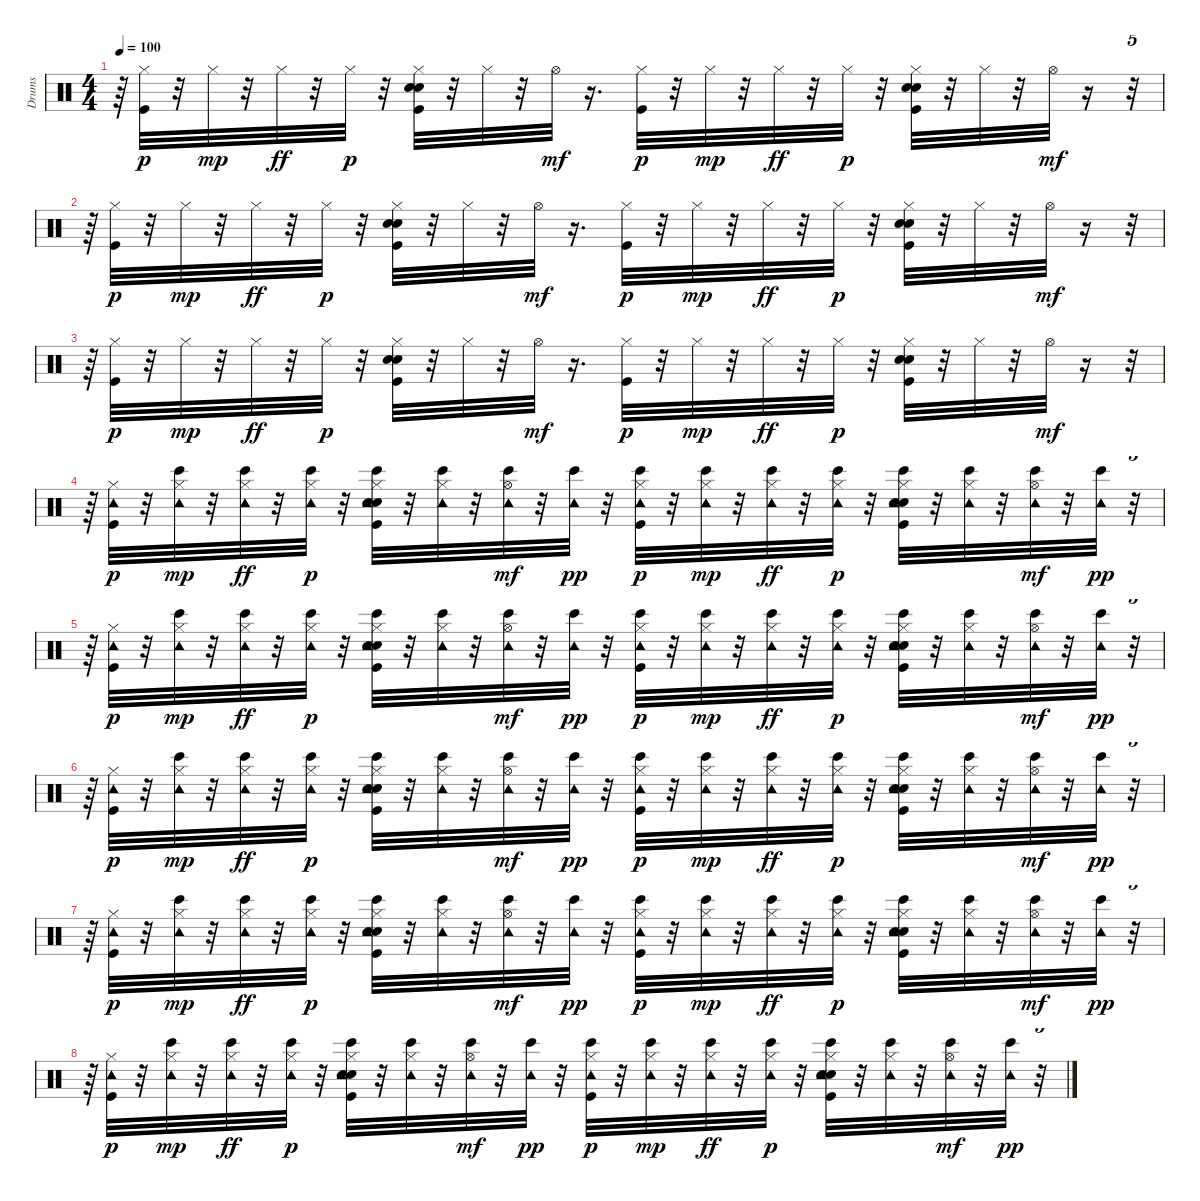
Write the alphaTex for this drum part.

\track ("Drums" "Drums") {instrument percussion}
\staff {score}
\articulation defaults
\ts (4 4)
\tempo 100
\clef neutral
\ks c
r.64{dy mf} ("Kick (hit)" "Hi-Hat (closed)").32{dy p} r.32 "Hi-Hat (closed)".32{dy mp} r.32 "Hi-Hat (closed)".32{dy ff} r.32 "Hi-Hat (closed)".32{dy p} r.32 ("Hand Clap (hit)" "Snare (hit) 2" "Kick (hit)" "Hi-Hat (closed)").32 r.32 "Hi-Hat (closed)".32 r.32 "Hi-Hat (open)".32{dy mf} r.16{d} ("Kick (hit)" "Hi-Hat (closed)").32{dy p} r.32 "Hi-Hat (closed)".32{dy mp} r.32 "Hi-Hat (closed)".32{dy ff} r.32 "Hi-Hat (closed)".32{dy p} r.32 ("Hand Clap (hit)" "Snare (hit) 2" "Kick (hit)" "Hi-Hat (closed)").32 r.32 "Hi-Hat (closed)".32 r.32 "Hi-Hat (open)".32{dy mf} r.16 r.32{tu (5 4)} |
r.64 ("Kick (hit)" "Hi-Hat (closed)").32{dy p} r.32 "Hi-Hat (closed)".32{dy mp} r.32 "Hi-Hat (closed)".32{dy ff} r.32 "Hi-Hat (closed)".32{dy p} r.32 ("Hand Clap (hit)" "Snare (hit) 2" "Kick (hit)" "Hi-Hat (closed)").32 r.32 "Hi-Hat (closed)".32 r.32 "Hi-Hat (open)".32{dy mf} r.16{d} ("Kick (hit)" "Hi-Hat (closed)").32{dy p} r.32 "Hi-Hat (closed)".32{dy mp} r.32 "Hi-Hat (closed)".32{dy ff} r.32 "Hi-Hat (closed)".32{dy p} r.32 ("Hand Clap (hit)" "Snare (hit) 2" "Kick (hit)" "Hi-Hat (closed)").32 r.32 "Hi-Hat (closed)".32 r.32 "Hi-Hat (open)".32{dy mf} r.16 r.32{tu (5 4)} |
r.64 ("Kick (hit)" "Hi-Hat (closed)").32{dy p} r.32 "Hi-Hat (closed)".32{dy mp} r.32 "Hi-Hat (closed)".32{dy ff} r.32 "Hi-Hat (closed)".32{dy p} r.32 ("Hand Clap (hit)" "Snare (hit) 2" "Kick (hit)" "Hi-Hat (closed)").32 r.32 "Hi-Hat (closed)".32 r.32 "Hi-Hat (open)".32{dy mf} r.16{d} ("Kick (hit)" "Hi-Hat (closed)").32{dy p} r.32 "Hi-Hat (closed)".32{dy mp} r.32 "Hi-Hat (closed)".32{dy ff} r.32 "Hi-Hat (closed)".32{dy p} r.32 ("Hand Clap (hit)" "Snare (hit) 2" "Kick (hit)" "Hi-Hat (closed)").32 r.32 "Hi-Hat (closed)".32 r.32 "Hi-Hat (open)".32{dy mf} r.16 r.32{tu (5 4)} |
r.64 ("Tambourine (hit)" "Kick (hit)" "Hi-Hat (closed)").32{dy p} r.32 ("Bongo High (hit)" "Tambourine (hit)" "Hi-Hat (closed)").32{dy mp} r.32 ("Bongo High (hit)" "Tambourine (hit)" "Hi-Hat (closed)").32{dy ff} r.32 ("Bongo High (hit)" "Tambourine (hit)" "Hi-Hat (closed)").32{dy p} r.32 ("Hand Clap (hit)" "Snare (hit) 2" "Bongo High (hit)" "Tambourine (hit)" "Kick (hit)" "Hi-Hat (closed)").32 r.32 ("Bongo High (hit)" "Tambourine (hit)" "Hi-Hat (closed)").32 r.32 ("Bongo High (hit)" "Tambourine (hit)" "Hi-Hat (open)").32{dy mf} r.32 ("Bongo High (hit)" "Tambourine (hit)").32{dy pp} r.32 ("Bongo High (hit)" "Tambourine (hit)" "Kick (hit)" "Hi-Hat (closed)").32{dy p} r.32 ("Bongo High (hit)" "Tambourine (hit)" "Hi-Hat (closed)").32{dy mp} r.32 ("Bongo High (hit)" "Tambourine (hit)" "Hi-Hat (closed)").32{dy ff} r.32 ("Bongo High (hit)" "Tambourine (hit)" "Hi-Hat (closed)").32{dy p} r.32 ("Hand Clap (hit)" "Snare (hit) 2" "Bongo High (hit)" "Tambourine (hit)" "Kick (hit)" "Hi-Hat (closed)").32 r.32 ("Bongo High (hit)" "Tambourine (hit)" "Hi-Hat (closed)").32 r.32 ("Bongo High (hit)" "Tambourine (hit)" "Hi-Hat (open)").32{dy mf} r.32 ("Bongo High (hit)" "Tambourine (hit)").32{dy pp} r.32{tu (5 4)} |
r.64 ("Tambourine (hit)" "Kick (hit)" "Hi-Hat (closed)").32{dy p} r.32 ("Bongo High (hit)" "Tambourine (hit)" "Hi-Hat (closed)").32{dy mp} r.32 ("Bongo High (hit)" "Tambourine (hit)" "Hi-Hat (closed)").32{dy ff} r.32 ("Bongo High (hit)" "Tambourine (hit)" "Hi-Hat (closed)").32{dy p} r.32 ("Hand Clap (hit)" "Snare (hit) 2" "Bongo High (hit)" "Tambourine (hit)" "Kick (hit)" "Hi-Hat (closed)").32 r.32 ("Bongo High (hit)" "Tambourine (hit)" "Hi-Hat (closed)").32 r.32 ("Bongo High (hit)" "Tambourine (hit)" "Hi-Hat (open)").32{dy mf} r.32 ("Bongo High (hit)" "Tambourine (hit)").32{dy pp} r.32 ("Bongo High (hit)" "Tambourine (hit)" "Kick (hit)" "Hi-Hat (closed)").32{dy p} r.32 ("Bongo High (hit)" "Tambourine (hit)" "Hi-Hat (closed)").32{dy mp} r.32 ("Bongo High (hit)" "Tambourine (hit)" "Hi-Hat (closed)").32{dy ff} r.32 ("Bongo High (hit)" "Tambourine (hit)" "Hi-Hat (closed)").32{dy p} r.32 ("Hand Clap (hit)" "Snare (hit) 2" "Bongo High (hit)" "Tambourine (hit)" "Kick (hit)" "Hi-Hat (closed)").32 r.32 ("Bongo High (hit)" "Tambourine (hit)" "Hi-Hat (closed)").32 r.32 ("Bongo High (hit)" "Tambourine (hit)" "Hi-Hat (open)").32{dy mf} r.32 ("Bongo High (hit)" "Tambourine (hit)").32{dy pp} r.32{tu (5 4)} |
r.64 ("Tambourine (hit)" "Kick (hit)" "Hi-Hat (closed)").32{dy p} r.32 ("Bongo High (hit)" "Tambourine (hit)" "Hi-Hat (closed)").32{dy mp} r.32 ("Bongo High (hit)" "Tambourine (hit)" "Hi-Hat (closed)").32{dy ff} r.32 ("Bongo High (hit)" "Tambourine (hit)" "Hi-Hat (closed)").32{dy p} r.32 ("Hand Clap (hit)" "Snare (hit) 2" "Bongo High (hit)" "Tambourine (hit)" "Kick (hit)" "Hi-Hat (closed)").32 r.32 ("Bongo High (hit)" "Tambourine (hit)" "Hi-Hat (closed)").32 r.32 ("Bongo High (hit)" "Tambourine (hit)" "Hi-Hat (open)").32{dy mf} r.32 ("Bongo High (hit)" "Tambourine (hit)").32{dy pp} r.32 ("Bongo High (hit)" "Tambourine (hit)" "Kick (hit)" "Hi-Hat (closed)").32{dy p} r.32 ("Bongo High (hit)" "Tambourine (hit)" "Hi-Hat (closed)").32{dy mp} r.32 ("Bongo High (hit)" "Tambourine (hit)" "Hi-Hat (closed)").32{dy ff} r.32 ("Bongo High (hit)" "Tambourine (hit)" "Hi-Hat (closed)").32{dy p} r.32 ("Hand Clap (hit)" "Snare (hit) 2" "Bongo High (hit)" "Tambourine (hit)" "Kick (hit)" "Hi-Hat (closed)").32 r.32 ("Bongo High (hit)" "Tambourine (hit)" "Hi-Hat (closed)").32 r.32 ("Bongo High (hit)" "Tambourine (hit)" "Hi-Hat (open)").32{dy mf} r.32 ("Bongo High (hit)" "Tambourine (hit)").32{dy pp} r.32{tu (5 4)} |
r.64 ("Tambourine (hit)" "Kick (hit)" "Hi-Hat (closed)").32{dy p} r.32 ("Bongo High (hit)" "Tambourine (hit)" "Hi-Hat (closed)").32{dy mp} r.32 ("Bongo High (hit)" "Tambourine (hit)" "Hi-Hat (closed)").32{dy ff} r.32 ("Bongo High (hit)" "Tambourine (hit)" "Hi-Hat (closed)").32{dy p} r.32 ("Hand Clap (hit)" "Snare (hit) 2" "Bongo High (hit)" "Tambourine (hit)" "Kick (hit)" "Hi-Hat (closed)").32 r.32 ("Bongo High (hit)" "Tambourine (hit)" "Hi-Hat (closed)").32 r.32 ("Bongo High (hit)" "Tambourine (hit)" "Hi-Hat (open)").32{dy mf} r.32 ("Bongo High (hit)" "Tambourine (hit)").32{dy pp} r.32 ("Bongo High (hit)" "Tambourine (hit)" "Kick (hit)" "Hi-Hat (closed)").32{dy p} r.32 ("Bongo High (hit)" "Tambourine (hit)" "Hi-Hat (closed)").32{dy mp} r.32 ("Bongo High (hit)" "Tambourine (hit)" "Hi-Hat (closed)").32{dy ff} r.32 ("Bongo High (hit)" "Tambourine (hit)" "Hi-Hat (closed)").32{dy p} r.32 ("Hand Clap (hit)" "Snare (hit) 2" "Bongo High (hit)" "Tambourine (hit)" "Kick (hit)" "Hi-Hat (closed)").32 r.32 ("Bongo High (hit)" "Tambourine (hit)" "Hi-Hat (closed)").32 r.32 ("Bongo High (hit)" "Tambourine (hit)" "Hi-Hat (open)").32{dy mf} r.32 ("Bongo High (hit)" "Tambourine (hit)").32{dy pp} r.32{tu (5 4)} |
r.64 ("Tambourine (hit)" "Kick (hit)" "Hi-Hat (closed)").32{dy p} r.32 ("Bongo High (hit)" "Tambourine (hit)" "Hi-Hat (closed)").32{dy mp} r.32 ("Bongo High (hit)" "Tambourine (hit)" "Hi-Hat (closed)").32{dy ff} r.32 ("Bongo High (hit)" "Tambourine (hit)" "Hi-Hat (closed)").32{dy p} r.32 ("Hand Clap (hit)" "Snare (hit) 2" "Bongo High (hit)" "Tambourine (hit)" "Kick (hit)" "Hi-Hat (closed)").32 r.32 ("Bongo High (hit)" "Tambourine (hit)" "Hi-Hat (closed)").32 r.32 ("Bongo High (hit)" "Tambourine (hit)" "Hi-Hat (open)").32{dy mf} r.32 ("Bongo High (hit)" "Tambourine (hit)").32{dy pp} r.32 ("Bongo High (hit)" "Tambourine (hit)" "Kick (hit)" "Hi-Hat (closed)").32{dy p} r.32 ("Bongo High (hit)" "Tambourine (hit)" "Hi-Hat (closed)").32{dy mp} r.32 ("Bongo High (hit)" "Tambourine (hit)" "Hi-Hat (closed)").32{dy ff} r.32 ("Bongo High (hit)" "Tambourine (hit)" "Hi-Hat (closed)").32{dy p} r.32 ("Hand Clap (hit)" "Snare (hit) 2" "Bongo High (hit)" "Tambourine (hit)" "Kick (hit)" "Hi-Hat (closed)").32 r.32 ("Bongo High (hit)" "Tambourine (hit)" "Hi-Hat (closed)").32 r.32 ("Bongo High (hit)" "Tambourine (hit)" "Hi-Hat (open)").32{dy mf} r.32 ("Bongo High (hit)" "Tambourine (hit)").32{dy pp} r.32{tu (5 4)}
